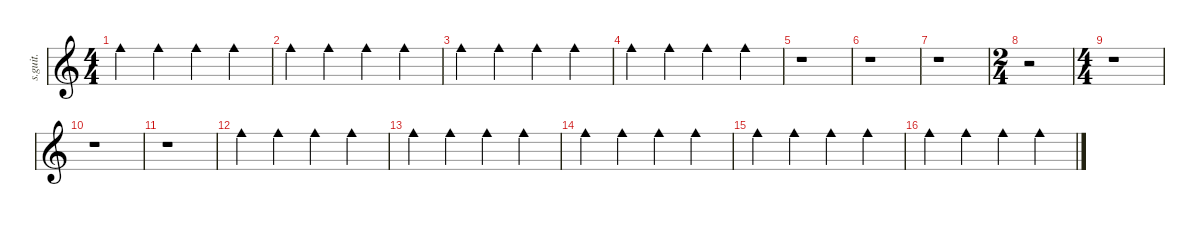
\defaultSystemsLayout 4
\hideDynamics
\bracketExtendMode nobrackets
\track ("Cowbell" "s.guit.") {instrument percussion}
\staff {score}
\articulation defaults
\ts (4 4)
\tempo (107 hide)
\clef g2
\ks c "Cowbell medium (hit)".4{dy mp} "Cowbell medium (hit)".4 "Cowbell medium (hit)".4 "Cowbell medium (hit)".4
|
"Cowbell medium (hit)".4 "Cowbell medium (hit)".4 "Cowbell medium (hit)".4 "Cowbell medium (hit)".4 |
"Cowbell medium (hit)".4 "Cowbell medium (hit)".4 "Cowbell medium (hit)".4 "Cowbell medium (hit)".4 |
"Cowbell medium (hit)".4 "Cowbell medium (hit)".4 "Cowbell medium (hit)".4 "Cowbell medium (hit)".4 |
r.1 |
r.1 |
r.1 |
\ts (2 4)
\beaming (8 2 2 2 2)
r.2 |
\ts (4 4)
\beaming (8 2 2 2 2)
r.1 |
r.1 |
r.1 |
"Cowbell medium (hit)".4 "Cowbell medium (hit)".4 "Cowbell medium (hit)".4 "Cowbell medium (hit)".4 |
"Cowbell medium (hit)".4 "Cowbell medium (hit)".4 "Cowbell medium (hit)".4 "Cowbell medium (hit)".4 |
"Cowbell medium (hit)".4 "Cowbell medium (hit)".4 "Cowbell medium (hit)".4 "Cowbell medium (hit)".4 |
"Cowbell medium (hit)".4 "Cowbell medium (hit)".4 "Cowbell medium (hit)".4 "Cowbell medium (hit)".4 |
"Cowbell medium (hit)".4 "Cowbell medium (hit)".4 "Cowbell medium (hit)".4 "Cowbell medium (hit)".4
